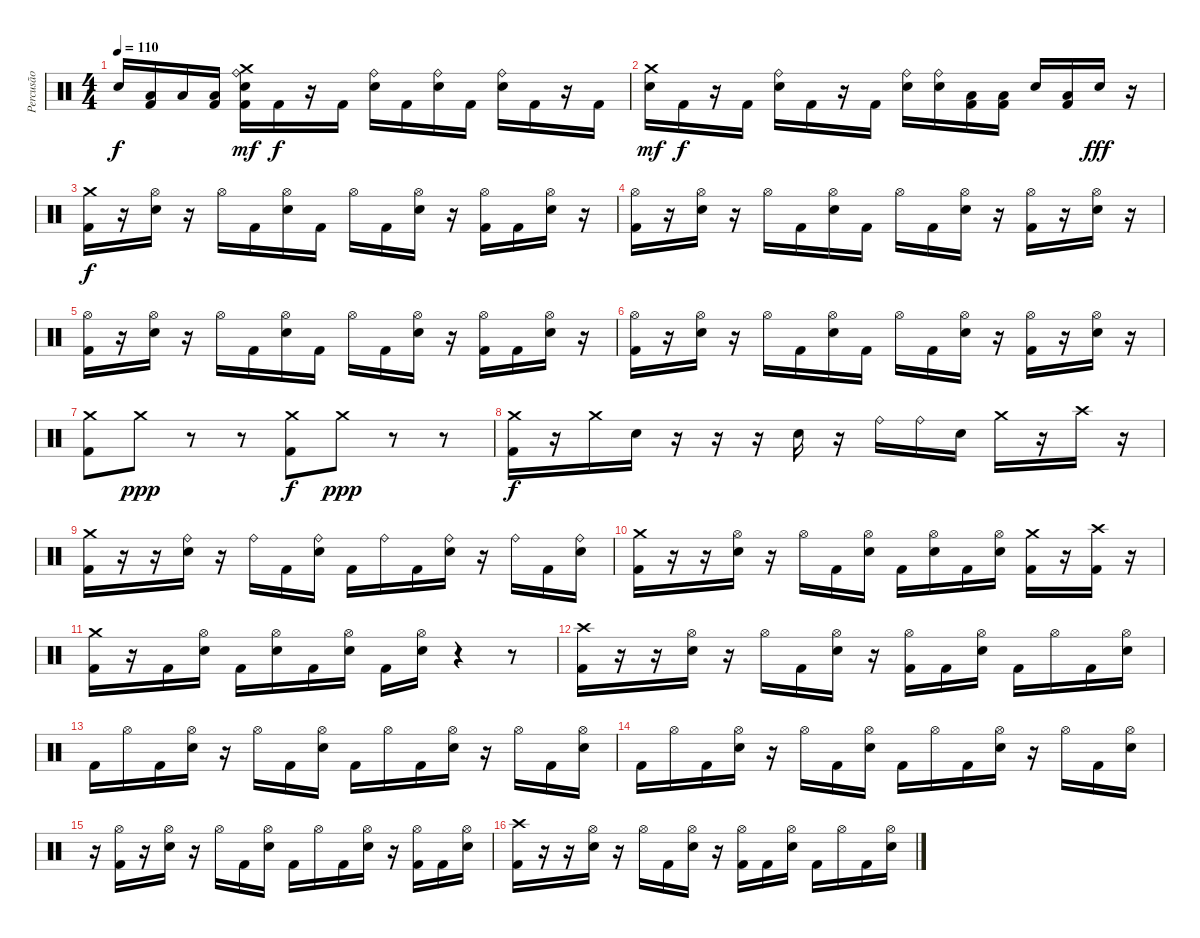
\track ("Percusão" "Percusão") {instrument percussion}
\staff {score}
\articulation defaults
\ts (4 4)
\tempo 110
\clef neutral
\ks c "Snare (hit) 2".16{dy f}
("Low Tom (hit)" "Kick (hit) 2").16 "Low Tom (hit)".16 ("Low Tom (hit)" "Kick (hit) 2").16 ("Snare (hit) 2" "Crash medium (hit)" "Ride (bell)" "Kick (hit) 2").16{dy mf} "Kick (hit) 2".16{dy f} r.16 "Kick (hit) 2".16 ("Ride (bell)" "Snare (hit) 2").16 "Kick (hit) 2".16 ("Ride (bell)" "Snare (hit) 2").16 "Kick (hit) 2".16 ("Ride (bell)" "Snare (hit) 2").16 "Kick (hit) 2".16 r.16 "Kick (hit) 2".16 |
("Crash medium (hit)" "Snare (hit) 2").16{dy mf} "Kick (hit) 2".16{dy f} r.16 "Kick (hit) 2".16 ("Ride (bell)" "Snare (hit) 2").16 "Kick (hit) 2".16 r.16 "Kick (hit) 2".16 ("Ride (bell)" "Snare (hit) 2").16 ("Ride (bell)" "Snare (hit) 2").16 ("Low Tom (hit)" "Kick (hit) 2").16 ("Low Tom (hit)" "Kick (hit) 2").16 "Snare (hit) 2".16 ("Low Tom (hit)" "Kick (hit) 2").16 "Snare (hit) 2".16{dy fff} r.16 |
("Crash medium (hit)" "Kick (hit) 2").16{dy f} r.16 ("Hi-Hat (open)" "Snare (hit) 2").16 r.16 "Hi-Hat (open)".16 "Kick (hit) 2".16 ("Hi-Hat (open)" "Snare (hit) 2").16 "Kick (hit) 2".16 "Hi-Hat (open)".16 "Kick (hit) 2".16 ("Hi-Hat (open)" "Snare (hit) 2").16 r.16 ("Hi-Hat (open)" "Kick (hit) 2").16 "Kick (hit) 2".16 ("Hi-Hat (open)" "Snare (hit) 2").16 r.16 |
("Hi-Hat (open)" "Kick (hit) 2").16 r.16 ("Hi-Hat (open)" "Snare (hit) 2").16 r.16 "Hi-Hat (open)".16 "Kick (hit) 2".16 ("Hi-Hat (open)" "Snare (hit) 2").16 "Kick (hit) 2".16 "Hi-Hat (open)".16 "Kick (hit) 2".16 ("Hi-Hat (open)" "Snare (hit) 2").16 r.16 ("Hi-Hat (open)" "Kick (hit) 2").16 r.16 ("Hi-Hat (open)" "Snare (hit) 2").16 r.16 |
("Hi-Hat (open)" "Kick (hit) 2").16 r.16 ("Hi-Hat (open)" "Snare (hit) 2").16 r.16 "Hi-Hat (open)".16 "Kick (hit) 2".16 ("Hi-Hat (open)" "Snare (hit) 2").16 "Kick (hit) 2".16 "Hi-Hat (open)".16 "Kick (hit) 2".16 ("Hi-Hat (open)" "Snare (hit) 2").16 r.16 ("Hi-Hat (open)" "Kick (hit) 2").16 "Kick (hit) 2".16 ("Hi-Hat (open)" "Snare (hit) 2").16 r.16 |
("Hi-Hat (open)" "Kick (hit) 2").16 r.16 ("Hi-Hat (open)" "Snare (hit) 2").16 r.16 "Hi-Hat (open)".16 "Kick (hit) 2".16 ("Hi-Hat (open)" "Snare (hit) 2").16 "Kick (hit) 2".16 "Hi-Hat (open)".16 "Kick (hit) 2".16 ("Hi-Hat (open)" "Snare (hit) 2").16 r.16 ("Hi-Hat (open)" "Kick (hit) 2").16 r.16 ("Hi-Hat (open)" "Snare (hit) 2").16 r.16 |
("Crash medium (hit)" "Kick (hit) 2").8 "Crash medium (hit)".8{dy ppp} r.8 r.8 ("Crash medium (hit)" "Kick (hit) 2").8{dy f} "Crash medium (hit)".8{dy ppp} r.8 r.8 |
("Crash medium (hit)" "Kick (hit) 2").16{dy f} r.16 "Crash medium (hit)".16 "Snare (hit) 2".16 r.16 r.16 r.16 "Snare (hit) 2".16 r.16 "Ride (bell)".16 "Ride (bell)".16 "Snare (hit) 2".16 "Crash medium (hit)".16 r.16 "Crash high (hit)".16 r.16 |
("Crash medium (hit)" "Kick (hit) 2").16 r.16 r.16 ("Ride (bell)" "Snare (hit) 2").16 r.16 "Ride (bell)".16 "Kick (hit) 2".16 ("Ride (bell)" "Snare (hit) 2").16 "Kick (hit) 2".16 "Ride (bell)".16 "Kick (hit) 2".16 ("Ride (bell)" "Snare (hit) 2").16 r.16 "Ride (bell)".16 "Kick (hit) 2".16 ("Ride (bell)" "Snare (hit) 2").16 |
("Crash medium (hit)" "Kick (hit) 2").16 r.16 r.16 ("Hi-Hat (open)" "Snare (hit) 2").16 r.16 "Hi-Hat (open)".16 "Kick (hit) 2".16 ("Hi-Hat (open)" "Snare (hit) 2").16 "Kick (hit) 2".16 ("Hi-Hat (open)" "Snare (hit) 2").16 "Kick (hit) 2".16 ("Hi-Hat (open)" "Snare (hit) 2").16 ("Crash medium (hit)" "Kick (hit) 2").16 r.16 ("Crash high (hit)" "Kick (hit) 2").16 r.16 |
("Crash medium (hit)" "Kick (hit) 2").16 r.16 "Kick (hit) 2".16 ("Hi-Hat (open)" "Snare (hit) 2").16 "Kick (hit) 2".16 ("Hi-Hat (open)" "Snare (hit) 2").16 "Kick (hit) 2".16 ("Hi-Hat (open)" "Snare (hit) 2").16 "Kick (hit) 2".16 ("Hi-Hat (open)" "Snare (hit) 2").16 r.4 r.8 |
("Crash high (hit)" "Kick (hit) 2").16 r.16 r.16 ("Hi-Hat (open)" "Snare (hit) 2").16 r.16 "Hi-Hat (open)".16 "Kick (hit) 2".16 ("Hi-Hat (open)" "Snare (hit) 2").16 r.16 ("Hi-Hat (open)" "Kick (hit) 2").16 "Kick (hit) 2".16 ("Hi-Hat (open)" "Snare (hit) 2").16 "Kick (hit) 2".16 "Hi-Hat (open)".16 "Kick (hit) 2".16 ("Hi-Hat (open)" "Snare (hit) 2").16 |
"Kick (hit) 2".16 "Hi-Hat (open)".16 "Kick (hit) 2".16 ("Hi-Hat (open)" "Snare (hit) 2").16 r.16 "Hi-Hat (open)".16 "Kick (hit) 2".16 ("Hi-Hat (open)" "Snare (hit) 2").16 "Kick (hit) 2".16 "Hi-Hat (open)".16 "Kick (hit) 2".16 ("Hi-Hat (open)" "Snare (hit) 2").16 r.16 "Hi-Hat (open)".16 "Kick (hit) 2".16 ("Hi-Hat (open)" "Snare (hit) 2").16 |
"Kick (hit) 2".16 "Hi-Hat (open)".16 "Kick (hit) 2".16 ("Hi-Hat (open)" "Snare (hit) 2").16 r.16 "Hi-Hat (open)".16 "Kick (hit) 2".16 ("Hi-Hat (open)" "Snare (hit) 2").16 "Kick (hit) 2".16 "Hi-Hat (open)".16 "Kick (hit) 2".16 ("Hi-Hat (open)" "Snare (hit) 2").16 r.16 "Hi-Hat (open)".16 "Kick (hit) 2".16 ("Hi-Hat (open)" "Snare (hit) 2").16 |
r.16 ("Hi-Hat (open)" "Kick (hit) 2").16 r.16 ("Hi-Hat (open)" "Snare (hit) 2").16 r.16 "Hi-Hat (open)".16 "Kick (hit) 2".16 ("Hi-Hat (open)" "Snare (hit) 2").16 "Kick (hit) 2".16 "Hi-Hat (open)".16 "Kick (hit) 2".16 ("Hi-Hat (open)" "Snare (hit) 2").16 r.16 ("Hi-Hat (open)" "Kick (hit) 2").16 "Kick (hit) 2".16 ("Hi-Hat (open)" "Snare (hit) 2").16 |
("Crash high (hit)" "Kick (hit) 2").16 r.16 r.16 ("Hi-Hat (open)" "Snare (hit) 2").16 r.16 "Hi-Hat (open)".16 "Kick (hit) 2".16 ("Hi-Hat (open)" "Snare (hit) 2").16 r.16 ("Hi-Hat (open)" "Kick (hit) 2").16 "Kick (hit) 2".16 ("Hi-Hat (open)" "Snare (hit) 2").16 "Kick (hit) 2".16 "Hi-Hat (open)".16 "Kick (hit) 2".16 ("Hi-Hat (open)" "Snare (hit) 2").16
